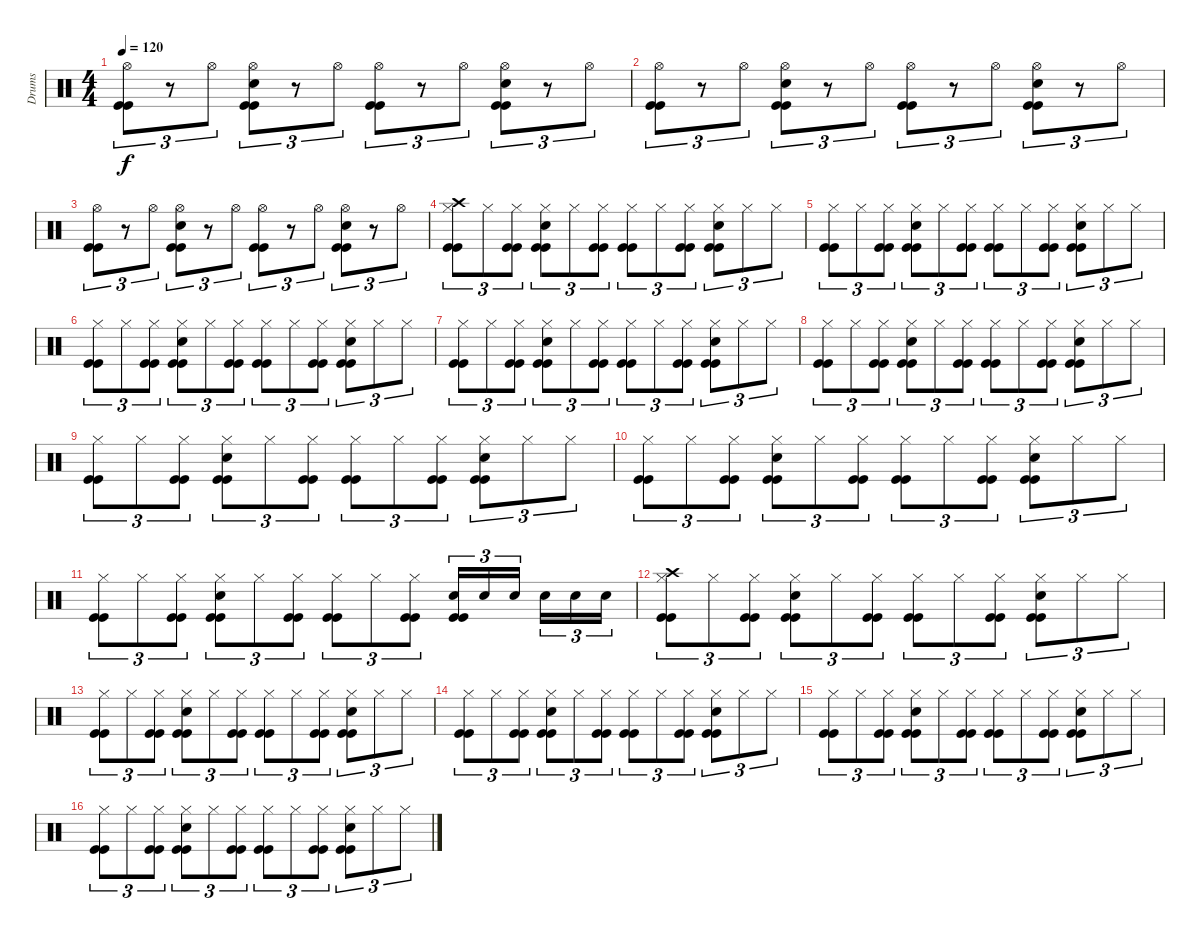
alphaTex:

\track ("Drums" "Drums") {instrument percussion}
\staff {score}
\articulation defaults
\ts (4 4)
\tempo 120
\clef neutral
\ks c
("Hi-Hat (open)" "Kick (hit)" "Kick (hit)").8{tu (3 2) dy f} r.8{tu (3 2)} "Hi-Hat (open)".8{tu (3 2)} ("Snare (hit) 2" "Hi-Hat (open)" "Kick (hit)" "Kick (hit)").8{tu (3 2)} r.8{tu (3 2)} "Hi-Hat (open)".8{tu (3 2)} ("Hi-Hat (open)" "Kick (hit)" "Kick (hit)").8{tu (3 2)} r.8{tu (3 2)} "Hi-Hat (open)".8{tu (3 2)} ("Snare (hit) 2" "Hi-Hat (open)" "Kick (hit)" "Kick (hit)").8{tu (3 2)} r.8{tu (3 2)} "Hi-Hat (open)".8{tu (3 2)} |
("Hi-Hat (open)" "Kick (hit)" "Kick (hit)").8{tu (3 2)} r.8{tu (3 2)} "Hi-Hat (open)".8{tu (3 2)} ("Snare (hit) 2" "Hi-Hat (open)" "Kick (hit)" "Kick (hit)").8{tu (3 2)} r.8{tu (3 2)} "Hi-Hat (open)".8{tu (3 2)} ("Hi-Hat (open)" "Kick (hit)" "Kick (hit)").8{tu (3 2)} r.8{tu (3 2)} "Hi-Hat (open)".8{tu (3 2)} ("Snare (hit) 2" "Hi-Hat (open)" "Kick (hit)" "Kick (hit)").8{tu (3 2)} r.8{tu (3 2)} "Hi-Hat (open)".8{tu (3 2)} |
("Hi-Hat (open)" "Kick (hit)" "Kick (hit)").8{tu (3 2)} r.8{tu (3 2)} "Hi-Hat (open)".8{tu (3 2)} ("Snare (hit) 2" "Hi-Hat (open)" "Kick (hit)" "Kick (hit)").8{tu (3 2)} r.8{tu (3 2)} "Hi-Hat (open)".8{tu (3 2)} ("Hi-Hat (open)" "Kick (hit)" "Kick (hit)").8{tu (3 2)} r.8{tu (3 2)} "Hi-Hat (open)".8{tu (3 2)} ("Snare (hit) 2" "Hi-Hat (open)" "Kick (hit)" "Kick (hit)").8{tu (3 2)} r.8{tu (3 2)} "Hi-Hat (open)".8{tu (3 2)} |
("Crash high (hit)" "Hi-Hat (closed)" "Kick (hit)" "Kick (hit)").8{tu (3 2)} "Hi-Hat (closed)".8{tu (3 2)} ("Hi-Hat (closed)" "Kick (hit)" "Kick (hit)").8{tu (3 2)} ("Snare (hit) 2" "Hi-Hat (closed)" "Kick (hit)" "Kick (hit)").8{tu (3 2)} "Hi-Hat (closed)".8{tu (3 2)} ("Hi-Hat (closed)" "Kick (hit)" "Kick (hit)").8{tu (3 2)} ("Hi-Hat (closed)" "Kick (hit)" "Kick (hit)").8{tu (3 2)} "Hi-Hat (closed)".8{tu (3 2)} ("Hi-Hat (closed)" "Kick (hit)" "Kick (hit)").8{tu (3 2)} ("Snare (hit) 2" "Hi-Hat (closed)" "Kick (hit)" "Kick (hit)").8{tu (3 2)} "Hi-Hat (closed)".8{tu (3 2)} "Hi-Hat (closed)".8{tu (3 2)} |
("Hi-Hat (closed)" "Kick (hit)" "Kick (hit)").8{tu (3 2)} "Hi-Hat (closed)".8{tu (3 2)} ("Hi-Hat (closed)" "Kick (hit)" "Kick (hit)").8{tu (3 2)} ("Snare (hit) 2" "Hi-Hat (closed)" "Kick (hit)" "Kick (hit)").8{tu (3 2)} "Hi-Hat (closed)".8{tu (3 2)} ("Hi-Hat (closed)" "Kick (hit)" "Kick (hit)").8{tu (3 2)} ("Hi-Hat (closed)" "Kick (hit)" "Kick (hit)").8{tu (3 2)} "Hi-Hat (closed)".8{tu (3 2)} ("Hi-Hat (closed)" "Kick (hit)" "Kick (hit)").8{tu (3 2)} ("Snare (hit) 2" "Hi-Hat (closed)" "Kick (hit)" "Kick (hit)").8{tu (3 2)} "Hi-Hat (closed)".8{tu (3 2)} "Hi-Hat (closed)".8{tu (3 2)} |
("Hi-Hat (closed)" "Kick (hit)" "Kick (hit)").8{tu (3 2)} "Hi-Hat (closed)".8{tu (3 2)} ("Hi-Hat (closed)" "Kick (hit)" "Kick (hit)").8{tu (3 2)} ("Snare (hit) 2" "Hi-Hat (closed)" "Kick (hit)" "Kick (hit)").8{tu (3 2)} "Hi-Hat (closed)".8{tu (3 2)} ("Hi-Hat (closed)" "Kick (hit)" "Kick (hit)").8{tu (3 2)} ("Hi-Hat (closed)" "Kick (hit)" "Kick (hit)").8{tu (3 2)} "Hi-Hat (closed)".8{tu (3 2)} ("Hi-Hat (closed)" "Kick (hit)" "Kick (hit)").8{tu (3 2)} ("Snare (hit) 2" "Hi-Hat (closed)" "Kick (hit)" "Kick (hit)").8{tu (3 2)} "Hi-Hat (closed)".8{tu (3 2)} "Hi-Hat (closed)".8{tu (3 2)} |
("Hi-Hat (closed)" "Kick (hit)" "Kick (hit)").8{tu (3 2)} "Hi-Hat (closed)".8{tu (3 2)} ("Hi-Hat (closed)" "Kick (hit)" "Kick (hit)").8{tu (3 2)} ("Snare (hit) 2" "Hi-Hat (closed)" "Kick (hit)" "Kick (hit)").8{tu (3 2)} "Hi-Hat (closed)".8{tu (3 2)} ("Hi-Hat (closed)" "Kick (hit)" "Kick (hit)").8{tu (3 2)} ("Hi-Hat (closed)" "Kick (hit)" "Kick (hit)").8{tu (3 2)} "Hi-Hat (closed)".8{tu (3 2)} ("Hi-Hat (closed)" "Kick (hit)" "Kick (hit)").8{tu (3 2)} ("Snare (hit) 2" "Hi-Hat (closed)" "Kick (hit)" "Kick (hit)").8{tu (3 2)} "Hi-Hat (closed)".8{tu (3 2)} "Hi-Hat (closed)".8{tu (3 2)} |
("Hi-Hat (closed)" "Kick (hit)" "Kick (hit)").8{tu (3 2)} "Hi-Hat (closed)".8{tu (3 2)} ("Hi-Hat (closed)" "Kick (hit)" "Kick (hit)").8{tu (3 2)} ("Snare (hit) 2" "Hi-Hat (closed)" "Kick (hit)" "Kick (hit)").8{tu (3 2)} "Hi-Hat (closed)".8{tu (3 2)} ("Hi-Hat (closed)" "Kick (hit)" "Kick (hit)").8{tu (3 2)} ("Hi-Hat (closed)" "Kick (hit)" "Kick (hit)").8{tu (3 2)} "Hi-Hat (closed)".8{tu (3 2)} ("Hi-Hat (closed)" "Kick (hit)" "Kick (hit)").8{tu (3 2)} ("Snare (hit) 2" "Hi-Hat (closed)" "Kick (hit)" "Kick (hit)").8{tu (3 2)} "Hi-Hat (closed)".8{tu (3 2)} "Hi-Hat (closed)".8{tu (3 2)} |
("Hi-Hat (closed)" "Kick (hit)" "Kick (hit)").8{tu (3 2)} "Hi-Hat (closed)".8{tu (3 2)} ("Hi-Hat (closed)" "Kick (hit)" "Kick (hit)").8{tu (3 2)} ("Snare (hit) 2" "Hi-Hat (closed)" "Kick (hit)" "Kick (hit)").8{tu (3 2)} "Hi-Hat (closed)".8{tu (3 2)} ("Hi-Hat (closed)" "Kick (hit)" "Kick (hit)").8{tu (3 2)} ("Hi-Hat (closed)" "Kick (hit)" "Kick (hit)").8{tu (3 2)} "Hi-Hat (closed)".8{tu (3 2)} ("Hi-Hat (closed)" "Kick (hit)" "Kick (hit)").8{tu (3 2)} ("Snare (hit) 2" "Hi-Hat (closed)" "Kick (hit)" "Kick (hit)").8{tu (3 2)} "Hi-Hat (closed)".8{tu (3 2)} "Hi-Hat (closed)".8{tu (3 2)} |
("Hi-Hat (closed)" "Kick (hit)" "Kick (hit)").8{tu (3 2)} "Hi-Hat (closed)".8{tu (3 2)} ("Hi-Hat (closed)" "Kick (hit)" "Kick (hit)").8{tu (3 2)} ("Snare (hit) 2" "Hi-Hat (closed)" "Kick (hit)" "Kick (hit)").8{tu (3 2)} "Hi-Hat (closed)".8{tu (3 2)} ("Hi-Hat (closed)" "Kick (hit)" "Kick (hit)").8{tu (3 2)} ("Hi-Hat (closed)" "Kick (hit)" "Kick (hit)").8{tu (3 2)} "Hi-Hat (closed)".8{tu (3 2)} ("Hi-Hat (closed)" "Kick (hit)" "Kick (hit)").8{tu (3 2)} ("Snare (hit) 2" "Hi-Hat (closed)" "Kick (hit)" "Kick (hit)").8{tu (3 2)} "Hi-Hat (closed)".8{tu (3 2)} "Hi-Hat (closed)".8{tu (3 2)} |
("Hi-Hat (closed)" "Kick (hit)" "Kick (hit)").8{tu (3 2)} "Hi-Hat (closed)".8{tu (3 2)} ("Hi-Hat (closed)" "Kick (hit)" "Kick (hit)").8{tu (3 2)} ("Snare (hit) 2" "Hi-Hat (closed)" "Kick (hit)" "Kick (hit)").8{tu (3 2)} "Hi-Hat (closed)".8{tu (3 2)} ("Hi-Hat (closed)" "Kick (hit)" "Kick (hit)").8{tu (3 2)} ("Hi-Hat (closed)" "Kick (hit)" "Kick (hit)").8{tu (3 2)} "Hi-Hat (closed)".8{tu (3 2)} ("Hi-Hat (closed)" "Kick (hit)" "Kick (hit)").8{tu (3 2)} ("Snare (hit) 2" "Kick (hit)" "Kick (hit)").16{tu (3 2)} "Snare (hit) 2".16{tu (3 2)} "Snare (hit) 2".16{tu (3 2)} "Snare (hit) 2".16{tu (3 2)} "Snare (hit) 2".16{tu (3 2)} "Snare (hit) 2".16{tu (3 2)} |
("Crash high (hit)" "Hi-Hat (closed)" "Kick (hit)" "Kick (hit)").8{tu (3 2)} "Hi-Hat (closed)".8{tu (3 2)} ("Hi-Hat (closed)" "Kick (hit)" "Kick (hit)").8{tu (3 2)} ("Snare (hit) 2" "Hi-Hat (closed)" "Kick (hit)" "Kick (hit)").8{tu (3 2)} "Hi-Hat (closed)".8{tu (3 2)} ("Hi-Hat (closed)" "Kick (hit)" "Kick (hit)").8{tu (3 2)} ("Hi-Hat (closed)" "Kick (hit)" "Kick (hit)").8{tu (3 2)} "Hi-Hat (closed)".8{tu (3 2)} ("Hi-Hat (closed)" "Kick (hit)" "Kick (hit)").8{tu (3 2)} ("Snare (hit) 2" "Hi-Hat (closed)" "Kick (hit)" "Kick (hit)").8{tu (3 2)} "Hi-Hat (closed)".8{tu (3 2)} "Hi-Hat (closed)".8{tu (3 2)} |
("Hi-Hat (closed)" "Kick (hit)" "Kick (hit)").8{tu (3 2)} "Hi-Hat (closed)".8{tu (3 2)} ("Hi-Hat (closed)" "Kick (hit)" "Kick (hit)").8{tu (3 2)} ("Snare (hit) 2" "Hi-Hat (closed)" "Kick (hit)" "Kick (hit)").8{tu (3 2)} "Hi-Hat (closed)".8{tu (3 2)} ("Hi-Hat (closed)" "Kick (hit)" "Kick (hit)").8{tu (3 2)} ("Hi-Hat (closed)" "Kick (hit)" "Kick (hit)").8{tu (3 2)} "Hi-Hat (closed)".8{tu (3 2)} ("Hi-Hat (closed)" "Kick (hit)" "Kick (hit)").8{tu (3 2)} ("Snare (hit) 2" "Hi-Hat (closed)" "Kick (hit)" "Kick (hit)").8{tu (3 2)} "Hi-Hat (closed)".8{tu (3 2)} "Hi-Hat (closed)".8{tu (3 2)} |
("Hi-Hat (closed)" "Kick (hit)" "Kick (hit)").8{tu (3 2)} "Hi-Hat (closed)".8{tu (3 2)} ("Hi-Hat (closed)" "Kick (hit)" "Kick (hit)").8{tu (3 2)} ("Snare (hit) 2" "Hi-Hat (closed)" "Kick (hit)" "Kick (hit)").8{tu (3 2)} "Hi-Hat (closed)".8{tu (3 2)} ("Hi-Hat (closed)" "Kick (hit)" "Kick (hit)").8{tu (3 2)} ("Hi-Hat (closed)" "Kick (hit)" "Kick (hit)").8{tu (3 2)} "Hi-Hat (closed)".8{tu (3 2)} ("Hi-Hat (closed)" "Kick (hit)" "Kick (hit)").8{tu (3 2)} ("Snare (hit) 2" "Hi-Hat (closed)" "Kick (hit)" "Kick (hit)").8{tu (3 2)} "Hi-Hat (closed)".8{tu (3 2)} "Hi-Hat (closed)".8{tu (3 2)} |
("Hi-Hat (closed)" "Kick (hit)" "Kick (hit)").8{tu (3 2)} "Hi-Hat (closed)".8{tu (3 2)} ("Hi-Hat (closed)" "Kick (hit)" "Kick (hit)").8{tu (3 2)} ("Snare (hit) 2" "Hi-Hat (closed)" "Kick (hit)" "Kick (hit)").8{tu (3 2)} "Hi-Hat (closed)".8{tu (3 2)} ("Hi-Hat (closed)" "Kick (hit)" "Kick (hit)").8{tu (3 2)} ("Hi-Hat (closed)" "Kick (hit)" "Kick (hit)").8{tu (3 2)} "Hi-Hat (closed)".8{tu (3 2)} ("Hi-Hat (closed)" "Kick (hit)" "Kick (hit)").8{tu (3 2)} ("Snare (hit) 2" "Hi-Hat (closed)" "Kick (hit)" "Kick (hit)").8{tu (3 2)} "Hi-Hat (closed)".8{tu (3 2)} "Hi-Hat (closed)".8{tu (3 2)} |
("Hi-Hat (closed)" "Kick (hit)" "Kick (hit)").8{tu (3 2)} "Hi-Hat (closed)".8{tu (3 2)} ("Hi-Hat (closed)" "Kick (hit)" "Kick (hit)").8{tu (3 2)} ("Snare (hit) 2" "Hi-Hat (closed)" "Kick (hit)" "Kick (hit)").8{tu (3 2)} "Hi-Hat (closed)".8{tu (3 2)} ("Hi-Hat (closed)" "Kick (hit)" "Kick (hit)").8{tu (3 2)} ("Hi-Hat (closed)" "Kick (hit)" "Kick (hit)").8{tu (3 2)} "Hi-Hat (closed)".8{tu (3 2)} ("Hi-Hat (closed)" "Kick (hit)" "Kick (hit)").8{tu (3 2)} ("Snare (hit) 2" "Hi-Hat (closed)" "Kick (hit)" "Kick (hit)").8{tu (3 2)} "Hi-Hat (closed)".8{tu (3 2)} "Hi-Hat (closed)".8{tu (3 2)}
